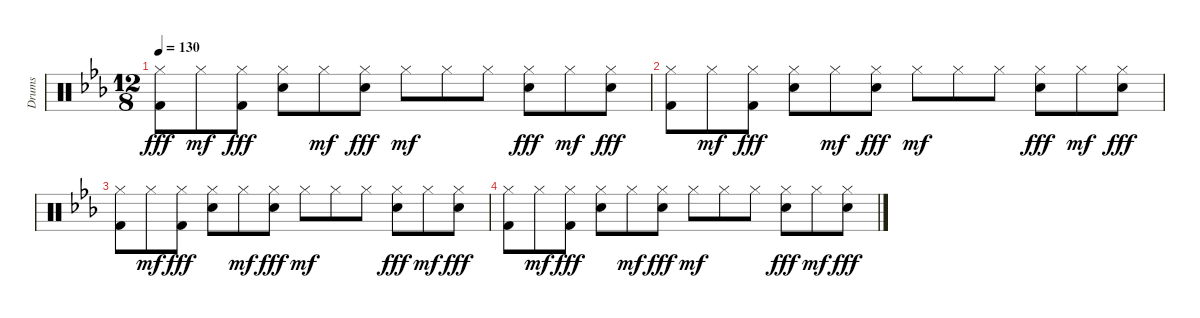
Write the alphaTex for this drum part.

\track ("Drums" "Drums") {instrument percussion}
\staff {score}
\articulation defaults
\ts (12 8)
\tempo 130
\clef neutral
\ks cminor
("Hi-Hat (closed)" "Kick (hit) 2").8{dy fff} "Hi-Hat (closed)".8{dy mf} ("Hi-Hat (closed)" "Kick (hit) 2").8{dy fff} ("Hi-Hat (closed)" "Electric Snare (hit)").8 "Hi-Hat (closed)".8{dy mf} ("Hi-Hat (closed)" "Electric Snare (hit)").8{dy fff} "Hi-Hat (closed)".8{dy mf} "Hi-Hat (closed)".8 "Hi-Hat (closed)".8 ("Hi-Hat (closed)" "Electric Snare (hit)").8{dy fff} "Hi-Hat (closed)".8{dy mf} ("Hi-Hat (closed)" "Electric Snare (hit)").8{dy fff} |
("Hi-Hat (closed)" "Kick (hit) 2").8 "Hi-Hat (closed)".8{dy mf} ("Hi-Hat (closed)" "Kick (hit) 2").8{dy fff} ("Hi-Hat (closed)" "Electric Snare (hit)").8 "Hi-Hat (closed)".8{dy mf} ("Hi-Hat (closed)" "Electric Snare (hit)").8{dy fff} "Hi-Hat (closed)".8{dy mf} "Hi-Hat (closed)".8 "Hi-Hat (closed)".8 ("Hi-Hat (closed)" "Electric Snare (hit)").8{dy fff} "Hi-Hat (closed)".8{dy mf} ("Hi-Hat (closed)" "Electric Snare (hit)").8{dy fff} |
("Hi-Hat (closed)" "Kick (hit) 2").8 "Hi-Hat (closed)".8{dy mf} ("Hi-Hat (closed)" "Kick (hit) 2").8{dy fff} ("Hi-Hat (closed)" "Electric Snare (hit)").8 "Hi-Hat (closed)".8{dy mf} ("Hi-Hat (closed)" "Electric Snare (hit)").8{dy fff} "Hi-Hat (closed)".8{dy mf} "Hi-Hat (closed)".8 "Hi-Hat (closed)".8 ("Hi-Hat (closed)" "Electric Snare (hit)").8{dy fff} "Hi-Hat (closed)".8{dy mf} ("Hi-Hat (closed)" "Electric Snare (hit)").8{dy fff} |
("Hi-Hat (closed)" "Kick (hit) 2").8 "Hi-Hat (closed)".8{dy mf} ("Hi-Hat (closed)" "Kick (hit) 2").8{dy fff} ("Hi-Hat (closed)" "Electric Snare (hit)").8 "Hi-Hat (closed)".8{dy mf} ("Hi-Hat (closed)" "Electric Snare (hit)").8{dy fff} "Hi-Hat (closed)".8{dy mf} "Hi-Hat (closed)".8 "Hi-Hat (closed)".8 ("Hi-Hat (closed)" "Electric Snare (hit)").8{dy fff} "Hi-Hat (closed)".8{dy mf} ("Hi-Hat (closed)" "Electric Snare (hit)").8{dy fff}
